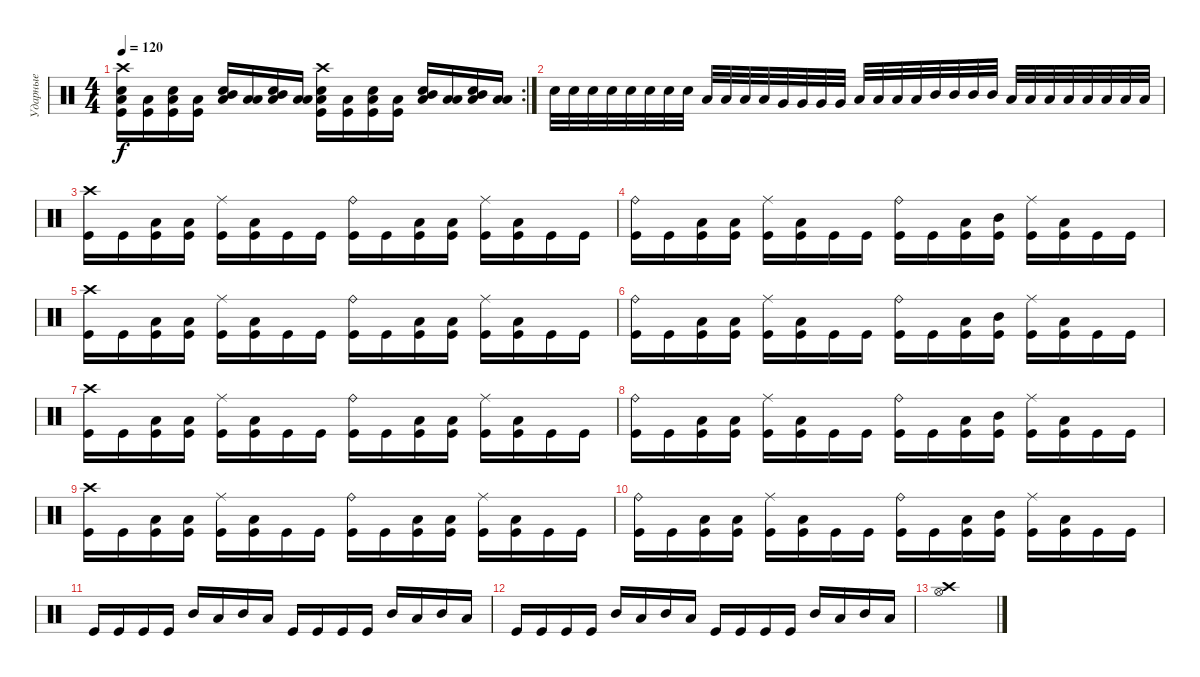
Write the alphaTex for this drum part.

\track ("Ударные" "Ударные") {instrument percussion}
\staff {score}
\articulation defaults
\rc 2
\ts (4 4)
\tempo 120
\clef neutral
\ks c
("Crash high (hit)" "Low Tom (hit)" "Snare (hit) 2" "Kick (hit)").16{dy f} ("Low Tom (hit)" "Kick (hit)").16 ("Low Tom (hit)" "Snare (hit) 2" "Kick (hit)").16 ("Low Tom (hit)" "Kick (hit)").16 ("Low Tom (hit)" "Snare (hit) 2" "Mid Tom (hit)").16 ("Low Tom (hit)" "Low Tom (hit)").16 ("Low Tom (hit)" "Snare (hit) 2" "Mid Tom (hit)").16 ("Low Tom (hit)" "Low Tom (hit)").16 ("Crash high (hit)" "Low Tom (hit)" "Snare (hit) 2" "Kick (hit)").16 ("Low Tom (hit)" "Kick (hit)").16 ("Low Tom (hit)" "Snare (hit) 2" "Kick (hit)").16 ("Low Tom (hit)" "Kick (hit)").16 ("Low Tom (hit)" "Snare (hit) 2" "Mid Tom (hit)").16 ("Low Tom (hit)" "Low Tom (hit)").16 ("Low Tom (hit)" "Snare (hit) 2" "Mid Tom (hit)").16 ("Low Tom (hit)" "Low Tom (hit)").16 |
"Snare (hit) 2".32 "Snare (hit) 2".32 "Snare (hit) 2".32 "Snare (hit) 2".32 "Electric Snare (hit)".32 "Electric Snare (hit)".32 "Electric Snare (hit)".32 "Electric Snare (hit)".32 "Low Floor Tom (hit)".32 "Low Floor Tom (hit)".32 "Low Floor Tom (hit)".32 "Low Floor Tom (hit)".32 "Very Low Tom (hit)".32 "Very Low Tom (hit)".32 "Very Low Tom (hit)".32 "Very Low Tom (hit)".32 "Low Tom (hit)".32 "Low Tom (hit)".32 "Low Tom (hit)".32 "Low Tom (hit)".32 "Mid Tom (hit)".32 "Mid Tom (hit)".32 "Mid Tom (hit)".32 "Mid Tom (hit)".32 "Low Tom (hit)".32 "Low Tom (hit)".32 "Low Tom (hit)".32 "Low Tom (hit)".32 "Low Tom (hit)".32 "Low Tom (hit)".32 "Low Tom (hit)".32 "Low Tom (hit)".32 |
("Crash high (hit)" "Kick (hit)").16 "Kick (hit)".16 ("Low Tom (hit)" "Kick (hit)").16 ("Low Tom (hit)" "Kick (hit)").16 ("Ride (middle)" "Kick (hit)").16 ("Low Tom (hit)" "Kick (hit)").16 "Kick (hit)".16 "Kick (hit)".16 ("Ride (bell)" "Kick (hit)").16 "Kick (hit)".16 ("Low Tom (hit)" "Kick (hit)").16 ("Low Tom (hit)" "Kick (hit)").16 ("Ride (middle)" "Kick (hit)").16 ("Low Tom (hit)" "Kick (hit)").16 "Kick (hit)".16 "Kick (hit)".16 |
("Ride (bell)" "Kick (hit)").16 "Kick (hit)".16 ("Low Tom (hit)" "Kick (hit)").16 ("Low Tom (hit)" "Kick (hit)").16 ("Ride (middle)" "Kick (hit)").16 ("Low Tom (hit)" "Kick (hit)").16 "Kick (hit)".16 "Kick (hit)".16 ("Ride (bell)" "Kick (hit)").16 "Kick (hit)".16 ("Low Tom (hit)" "Kick (hit)").16 ("Mid Tom (hit)" "Kick (hit)").16 ("Ride (middle)" "Kick (hit)").16 ("Low Tom (hit)" "Kick (hit)").16 "Kick (hit)".16 "Kick (hit)".16 |
("Crash high (hit)" "Kick (hit)").16 "Kick (hit)".16 ("Low Tom (hit)" "Kick (hit)").16 ("Low Tom (hit)" "Kick (hit)").16 ("Ride (middle)" "Kick (hit)").16 ("Low Tom (hit)" "Kick (hit)").16 "Kick (hit)".16 "Kick (hit)".16 ("Ride (bell)" "Kick (hit)").16 "Kick (hit)".16 ("Low Tom (hit)" "Kick (hit)").16 ("Low Tom (hit)" "Kick (hit)").16 ("Ride (middle)" "Kick (hit)").16 ("Low Tom (hit)" "Kick (hit)").16 "Kick (hit)".16 "Kick (hit)".16 |
("Ride (bell)" "Kick (hit)").16 "Kick (hit)".16 ("Low Tom (hit)" "Kick (hit)").16 ("Low Tom (hit)" "Kick (hit)").16 ("Ride (middle)" "Kick (hit)").16 ("Low Tom (hit)" "Kick (hit)").16 "Kick (hit)".16 "Kick (hit)".16 ("Ride (bell)" "Kick (hit)").16 "Kick (hit)".16 ("Low Tom (hit)" "Kick (hit)").16 ("Mid Tom (hit)" "Kick (hit)").16 ("Ride (middle)" "Kick (hit)").16 ("Low Tom (hit)" "Kick (hit)").16 "Kick (hit)".16 "Kick (hit)".16 |
("Crash high (hit)" "Kick (hit)").16 "Kick (hit)".16 ("Low Tom (hit)" "Kick (hit)").16 ("Low Tom (hit)" "Kick (hit)").16 ("Ride (middle)" "Kick (hit)").16 ("Low Tom (hit)" "Kick (hit)").16 "Kick (hit)".16 "Kick (hit)".16 ("Ride (bell)" "Kick (hit)").16 "Kick (hit)".16 ("Low Tom (hit)" "Kick (hit)").16 ("Low Tom (hit)" "Kick (hit)").16 ("Ride (middle)" "Kick (hit)").16 ("Low Tom (hit)" "Kick (hit)").16 "Kick (hit)".16 "Kick (hit)".16 |
("Ride (bell)" "Kick (hit)").16 "Kick (hit)".16 ("Low Tom (hit)" "Kick (hit)").16 ("Low Tom (hit)" "Kick (hit)").16 ("Ride (middle)" "Kick (hit)").16 ("Low Tom (hit)" "Kick (hit)").16 "Kick (hit)".16 "Kick (hit)".16 ("Ride (bell)" "Kick (hit)").16 "Kick (hit)".16 ("Low Tom (hit)" "Kick (hit)").16 ("Mid Tom (hit)" "Kick (hit)").16 ("Ride (middle)" "Kick (hit)").16 ("Low Tom (hit)" "Kick (hit)").16 "Kick (hit)".16 "Kick (hit)".16 |
("Crash high (hit)" "Kick (hit)").16 "Kick (hit)".16 ("Low Tom (hit)" "Kick (hit)").16 ("Low Tom (hit)" "Kick (hit)").16 ("Ride (middle)" "Kick (hit)").16 ("Low Tom (hit)" "Kick (hit)").16 "Kick (hit)".16 "Kick (hit)".16 ("Ride (bell)" "Kick (hit)").16 "Kick (hit)".16 ("Low Tom (hit)" "Kick (hit)").16 ("Low Tom (hit)" "Kick (hit)").16 ("Ride (middle)" "Kick (hit)").16 ("Low Tom (hit)" "Kick (hit)").16 "Kick (hit)".16 "Kick (hit)".16 |
("Ride (bell)" "Kick (hit)").16 "Kick (hit)".16 ("Low Tom (hit)" "Kick (hit)").16 ("Low Tom (hit)" "Kick (hit)").16 ("Ride (middle)" "Kick (hit)").16 ("Low Tom (hit)" "Kick (hit)").16 "Kick (hit)".16 "Kick (hit)".16 ("Ride (bell)" "Kick (hit)").16 "Kick (hit)".16 ("Low Tom (hit)" "Kick (hit)").16 ("Mid Tom (hit)" "Kick (hit)").16 ("Ride (middle)" "Kick (hit)").16 ("Low Tom (hit)" "Kick (hit)").16 "Kick (hit)".16 "Kick (hit)".16 |
"Kick (hit)".16 "Kick (hit)".16 "Kick (hit)".16 "Kick (hit)".16 "Mid Tom (hit)".16 "Low Tom (hit)".16 "Mid Tom (hit)".16 "Low Tom (hit)".16 "Kick (hit)".16 "Kick (hit)".16 "Kick (hit)".16 "Kick (hit)".16 "Mid Tom (hit)".16 "Low Tom (hit)".16 "Mid Tom (hit)".16 "Low Tom (hit)".16 |
"Kick (hit)".16 "Kick (hit)".16 "Kick (hit)".16 "Kick (hit)".16 "Mid Tom (hit)".16 "Low Tom (hit)".16 "Mid Tom (hit)".16 "Low Tom (hit)".16 "Kick (hit)".16 "Kick (hit)".16 "Kick (hit)".16 "Kick (hit)".16 "Mid Tom (hit)".16 "Low Tom (hit)".16 "Mid Tom (hit)".16 "Low Tom (hit)".16 |
("Crash high (hit)" "Hi-Hat (open)").1
